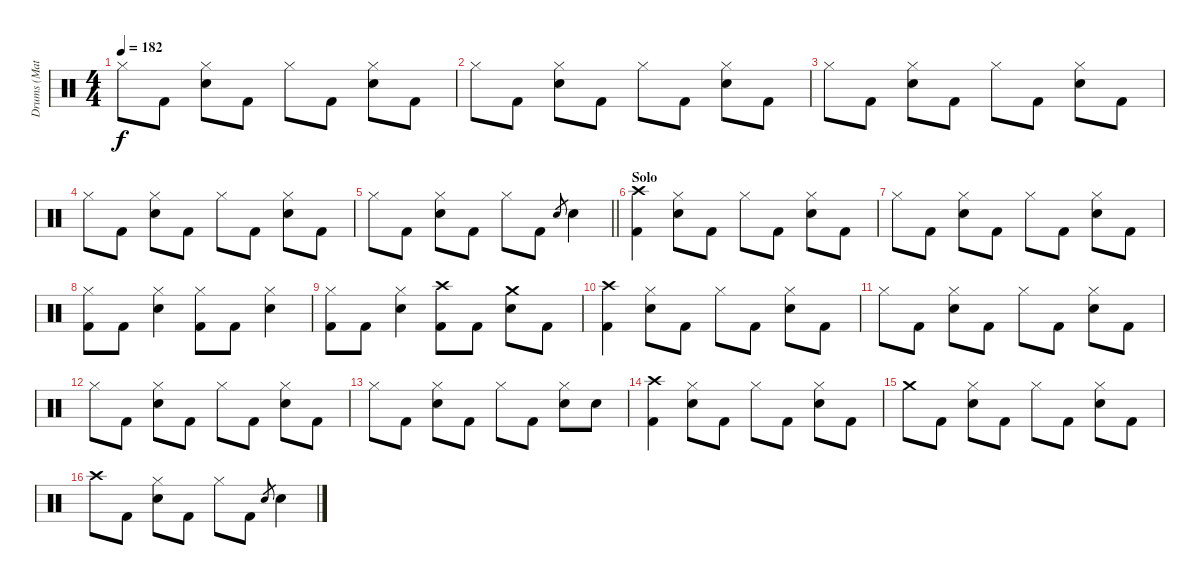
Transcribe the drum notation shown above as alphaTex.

\track ("Drums (Matt)" "Drums (Mat") {instrument percussion}
\staff {score}
\articulation defaults
\ts (4 4)
\tempo 182
\clef neutral
\ks c "Hi-Hat (closed)".8{dy f} "Kick (hit) 2".8
("Hi-Hat (closed)" "Snare (hit) 2").8 "Kick (hit) 2".8 "Hi-Hat (closed)".8 "Kick (hit) 2".8 ("Hi-Hat (closed)" "Snare (hit) 2").8 "Kick (hit) 2".8 |
"Hi-Hat (closed)".8 "Kick (hit) 2".8 ("Hi-Hat (closed)" "Snare (hit) 2").8 "Kick (hit) 2".8 "Hi-Hat (closed)".8 "Kick (hit) 2".8 ("Hi-Hat (closed)" "Snare (hit) 2").8 "Kick (hit) 2".8 |
"Hi-Hat (closed)".8 "Kick (hit) 2".8 ("Hi-Hat (closed)" "Snare (hit) 2").8 "Kick (hit) 2".8 "Hi-Hat (closed)".8 "Kick (hit) 2".8 ("Hi-Hat (closed)" "Snare (hit) 2").8 "Kick (hit) 2".8 |
"Hi-Hat (closed)".8 "Kick (hit) 2".8 ("Hi-Hat (closed)" "Snare (hit) 2").8 "Kick (hit) 2".8 "Hi-Hat (closed)".8 "Kick (hit) 2".8 ("Hi-Hat (closed)" "Snare (hit) 2").8 "Kick (hit) 2".8 |
\barLineRight lightlight "Hi-Hat (closed)".8 "Kick (hit) 2".8
("Hi-Hat (closed)" "Snare (hit) 2").8 "Kick (hit) 2".8 "Hi-Hat (closed)".8 "Kick (hit) 2".8 "Snare (hit) 2".8{gr} "Snare (hit) 2".4 |
\section ("" "Solo")
("Crash high (hit)" "Kick (hit) 2").4 ("Hi-Hat (closed)" "Snare (hit) 2").8 "Kick (hit) 2".8 "Hi-Hat (closed)".8 "Kick (hit) 2".8 ("Hi-Hat (closed)" "Snare (hit) 2").8 "Kick (hit) 2".8 |
"Hi-Hat (closed)".8 "Kick (hit) 2".8 ("Hi-Hat (closed)" "Snare (hit) 2").8 "Kick (hit) 2".8 "Hi-Hat (closed)".8 "Kick (hit) 2".8 ("Hi-Hat (closed)" "Snare (hit) 2").8 "Kick (hit) 2".8 |
("Hi-Hat (closed)" "Kick (hit) 2").8 "Kick (hit) 2".8 ("Hi-Hat (closed)" "Snare (hit) 2").4 ("Hi-Hat (closed)" "Kick (hit) 2").8 "Kick (hit) 2".8 ("Hi-Hat (closed)" "Snare (hit) 2").4 |
("Hi-Hat (closed)" "Kick (hit) 2").8 "Kick (hit) 2".8 ("Hi-Hat (closed)" "Snare (hit) 2").4 ("Crash high (hit)" "Kick (hit) 2").8 "Kick (hit) 2".8 ("Crash medium (hit)" "Snare (hit) 2").8 "Kick (hit) 2".8 |
("Crash high (hit)" "Kick (hit) 2").4 ("Hi-Hat (closed)" "Snare (hit) 2").8 "Kick (hit) 2".8 "Hi-Hat (closed)".8 "Kick (hit) 2".8 ("Hi-Hat (closed)" "Snare (hit) 2").8 "Kick (hit) 2".8 |
"Hi-Hat (closed)".8 "Kick (hit) 2".8 ("Hi-Hat (closed)" "Snare (hit) 2").8 "Kick (hit) 2".8 "Hi-Hat (closed)".8 "Kick (hit) 2".8 ("Hi-Hat (closed)" "Snare (hit) 2").8 "Kick (hit) 2".8 |
"Hi-Hat (closed)".8 "Kick (hit) 2".8 ("Hi-Hat (closed)" "Snare (hit) 2").8 "Kick (hit) 2".8 "Hi-Hat (closed)".8 "Kick (hit) 2".8 ("Hi-Hat (closed)" "Snare (hit) 2").8 "Kick (hit) 2".8 |
"Hi-Hat (closed)".8 "Kick (hit) 2".8 ("Hi-Hat (closed)" "Snare (hit) 2").8 "Kick (hit) 2".8 "Hi-Hat (closed)".8 "Kick (hit) 2".8 ("Hi-Hat (closed)" "Snare (hit) 2").8 "Snare (hit) 2".8 |
("Crash high (hit)" "Kick (hit) 2").4 ("Hi-Hat (closed)" "Snare (hit) 2").8 "Kick (hit) 2".8 "Hi-Hat (closed)".8 "Kick (hit) 2".8 ("Hi-Hat (closed)" "Snare (hit) 2").8 "Kick (hit) 2".8 |
"Crash medium (hit)".8 "Kick (hit) 2".8 ("Hi-Hat (closed)" "Snare (hit) 2").8 "Kick (hit) 2".8 "Hi-Hat (closed)".8 "Kick (hit) 2".8 ("Hi-Hat (closed)" "Snare (hit) 2").8 "Kick (hit) 2".8 |
"Crash high (hit)".8 "Kick (hit) 2".8 ("Hi-Hat (closed)" "Snare (hit) 2").8 "Kick (hit) 2".8 "Hi-Hat (closed)".8 "Kick (hit) 2".8 "Snare (hit) 2".8{gr} "Snare (hit) 2".4
